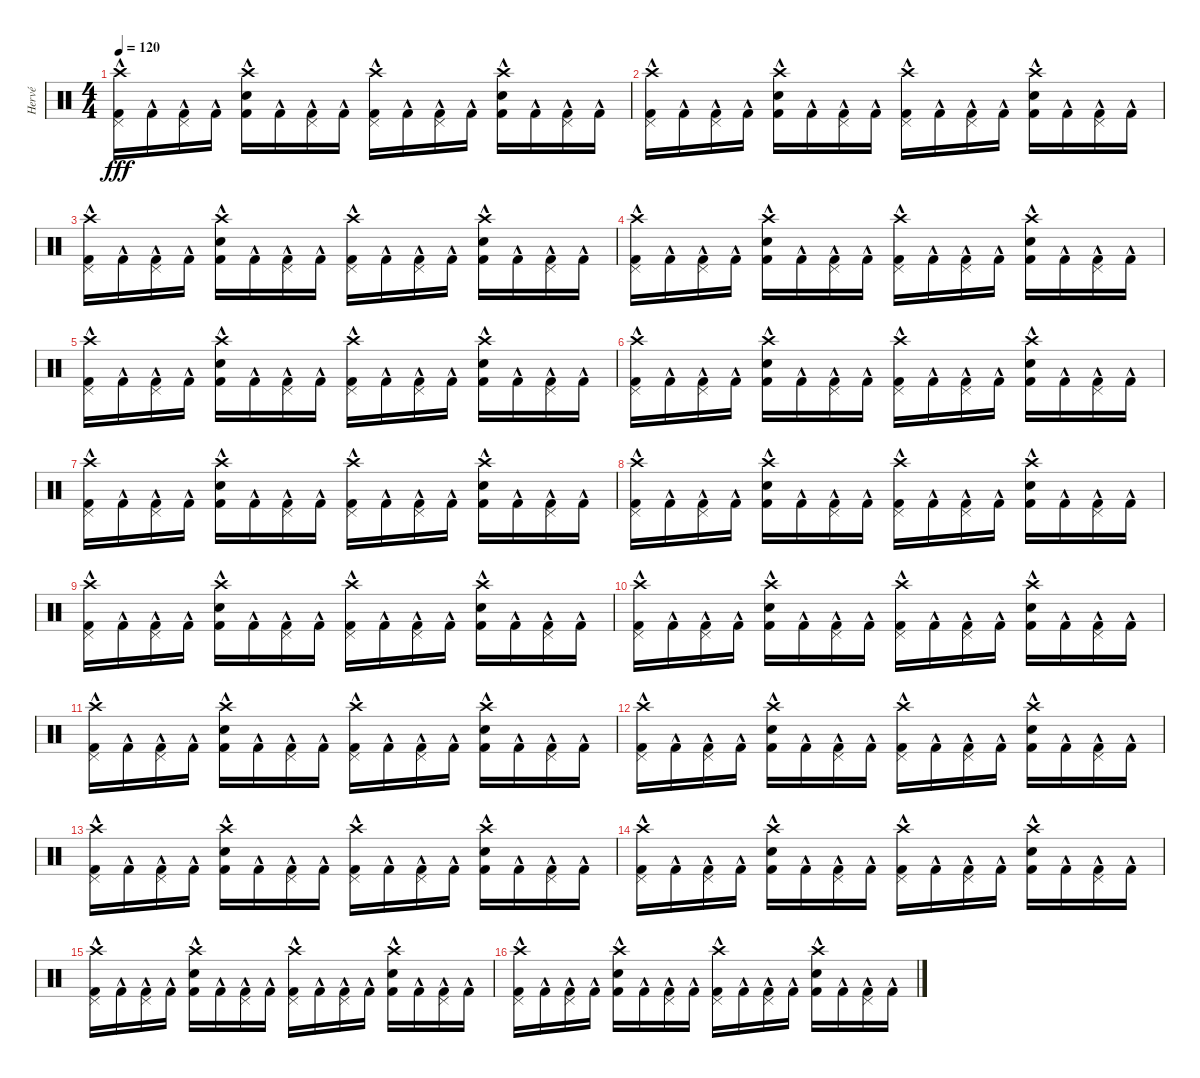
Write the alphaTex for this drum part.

\track ("Hervé" "Hervé") {instrument percussion}
\staff {score}
\articulation defaults
\ts (4 4)
\tempo 120
\clef neutral
\ks c
("Crash high (hit)" "Pedal Hi-Hat (hit)" "Kick (hit) 2"{hac}).16{dy fff} "Kick (hit) 2"{hac}.16 ("Pedal Hi-Hat (hit)" "Kick (hit) 2"{hac}).16 "Kick (hit) 2"{hac}.16 ("Crash high (hit)" "Electric Snare (hit)" "Kick (hit) 2"{hac}).16 "Kick (hit) 2"{hac}.16 ("Pedal Hi-Hat (hit)" "Kick (hit) 2"{hac}).16 "Kick (hit) 2"{hac}.16 ("Crash high (hit)" "Pedal Hi-Hat (hit)" "Kick (hit) 2"{hac}).16 "Kick (hit) 2"{hac}.16 ("Pedal Hi-Hat (hit)" "Kick (hit) 2"{hac}).16 "Kick (hit) 2"{hac}.16 ("Crash high (hit)" "Electric Snare (hit)" "Kick (hit) 2"{hac}).16 "Kick (hit) 2"{hac}.16 ("Pedal Hi-Hat (hit)" "Kick (hit) 2"{hac}).16 "Kick (hit) 2"{hac}.16 |
("Crash high (hit)" "Pedal Hi-Hat (hit)" "Kick (hit) 2"{hac}).16 "Kick (hit) 2"{hac}.16 ("Pedal Hi-Hat (hit)" "Kick (hit) 2"{hac}).16 "Kick (hit) 2"{hac}.16 ("Crash high (hit)" "Electric Snare (hit)" "Kick (hit) 2"{hac}).16 "Kick (hit) 2"{hac}.16 ("Pedal Hi-Hat (hit)" "Kick (hit) 2"{hac}).16 "Kick (hit) 2"{hac}.16 ("Crash high (hit)" "Pedal Hi-Hat (hit)" "Kick (hit) 2"{hac}).16 "Kick (hit) 2"{hac}.16 ("Pedal Hi-Hat (hit)" "Kick (hit) 2"{hac}).16 "Kick (hit) 2"{hac}.16 ("Crash high (hit)" "Electric Snare (hit)" "Kick (hit) 2"{hac}).16 "Kick (hit) 2"{hac}.16 ("Pedal Hi-Hat (hit)" "Kick (hit) 2"{hac}).16 "Kick (hit) 2"{hac}.16 |
("Crash high (hit)" "Pedal Hi-Hat (hit)" "Kick (hit) 2"{hac}).16 "Kick (hit) 2"{hac}.16 ("Pedal Hi-Hat (hit)" "Kick (hit) 2"{hac}).16 "Kick (hit) 2"{hac}.16 ("Crash high (hit)" "Electric Snare (hit)" "Kick (hit) 2"{hac}).16 "Kick (hit) 2"{hac}.16 ("Pedal Hi-Hat (hit)" "Kick (hit) 2"{hac}).16 "Kick (hit) 2"{hac}.16 ("Crash high (hit)" "Pedal Hi-Hat (hit)" "Kick (hit) 2"{hac}).16 "Kick (hit) 2"{hac}.16 ("Pedal Hi-Hat (hit)" "Kick (hit) 2"{hac}).16 "Kick (hit) 2"{hac}.16 ("Crash high (hit)" "Electric Snare (hit)" "Kick (hit) 2"{hac}).16 "Kick (hit) 2"{hac}.16 ("Pedal Hi-Hat (hit)" "Kick (hit) 2"{hac}).16 "Kick (hit) 2"{hac}.16 |
("Crash high (hit)" "Pedal Hi-Hat (hit)" "Kick (hit) 2"{hac}).16 "Kick (hit) 2"{hac}.16 ("Pedal Hi-Hat (hit)" "Kick (hit) 2"{hac}).16 "Kick (hit) 2"{hac}.16 ("Crash high (hit)" "Electric Snare (hit)" "Kick (hit) 2"{hac}).16 "Kick (hit) 2"{hac}.16 ("Pedal Hi-Hat (hit)" "Kick (hit) 2"{hac}).16 "Kick (hit) 2"{hac}.16 ("Crash high (hit)" "Pedal Hi-Hat (hit)" "Kick (hit) 2"{hac}).16 "Kick (hit) 2"{hac}.16 ("Pedal Hi-Hat (hit)" "Kick (hit) 2"{hac}).16 "Kick (hit) 2"{hac}.16 ("Crash high (hit)" "Electric Snare (hit)" "Kick (hit) 2"{hac}).16 "Kick (hit) 2"{hac}.16 ("Pedal Hi-Hat (hit)" "Kick (hit) 2"{hac}).16 "Kick (hit) 2"{hac}.16 |
("Crash high (hit)" "Pedal Hi-Hat (hit)" "Kick (hit) 2"{hac}).16 "Kick (hit) 2"{hac}.16 ("Pedal Hi-Hat (hit)" "Kick (hit) 2"{hac}).16 "Kick (hit) 2"{hac}.16 ("Crash high (hit)" "Electric Snare (hit)" "Kick (hit) 2"{hac}).16 "Kick (hit) 2"{hac}.16 ("Pedal Hi-Hat (hit)" "Kick (hit) 2"{hac}).16 "Kick (hit) 2"{hac}.16 ("Crash high (hit)" "Pedal Hi-Hat (hit)" "Kick (hit) 2"{hac}).16 "Kick (hit) 2"{hac}.16 ("Pedal Hi-Hat (hit)" "Kick (hit) 2"{hac}).16 "Kick (hit) 2"{hac}.16 ("Crash high (hit)" "Electric Snare (hit)" "Kick (hit) 2"{hac}).16 "Kick (hit) 2"{hac}.16 ("Pedal Hi-Hat (hit)" "Kick (hit) 2"{hac}).16 "Kick (hit) 2"{hac}.16 |
("Crash high (hit)" "Pedal Hi-Hat (hit)" "Kick (hit) 2"{hac}).16 "Kick (hit) 2"{hac}.16 ("Pedal Hi-Hat (hit)" "Kick (hit) 2"{hac}).16 "Kick (hit) 2"{hac}.16 ("Crash high (hit)" "Electric Snare (hit)" "Kick (hit) 2"{hac}).16 "Kick (hit) 2"{hac}.16 ("Pedal Hi-Hat (hit)" "Kick (hit) 2"{hac}).16 "Kick (hit) 2"{hac}.16 ("Crash high (hit)" "Pedal Hi-Hat (hit)" "Kick (hit) 2"{hac}).16 "Kick (hit) 2"{hac}.16 ("Pedal Hi-Hat (hit)" "Kick (hit) 2"{hac}).16 "Kick (hit) 2"{hac}.16 ("Crash high (hit)" "Electric Snare (hit)" "Kick (hit) 2"{hac}).16 "Kick (hit) 2"{hac}.16 ("Pedal Hi-Hat (hit)" "Kick (hit) 2"{hac}).16 "Kick (hit) 2"{hac}.16 |
("Crash high (hit)" "Pedal Hi-Hat (hit)" "Kick (hit) 2"{hac}).16 "Kick (hit) 2"{hac}.16 ("Pedal Hi-Hat (hit)" "Kick (hit) 2"{hac}).16 "Kick (hit) 2"{hac}.16 ("Crash high (hit)" "Electric Snare (hit)" "Kick (hit) 2"{hac}).16 "Kick (hit) 2"{hac}.16 ("Pedal Hi-Hat (hit)" "Kick (hit) 2"{hac}).16 "Kick (hit) 2"{hac}.16 ("Crash high (hit)" "Pedal Hi-Hat (hit)" "Kick (hit) 2"{hac}).16 "Kick (hit) 2"{hac}.16 ("Pedal Hi-Hat (hit)" "Kick (hit) 2"{hac}).16 "Kick (hit) 2"{hac}.16 ("Crash high (hit)" "Electric Snare (hit)" "Kick (hit) 2"{hac}).16 "Kick (hit) 2"{hac}.16 ("Pedal Hi-Hat (hit)" "Kick (hit) 2"{hac}).16 "Kick (hit) 2"{hac}.16 |
("Crash high (hit)" "Pedal Hi-Hat (hit)" "Kick (hit) 2"{hac}).16 "Kick (hit) 2"{hac}.16 ("Pedal Hi-Hat (hit)" "Kick (hit) 2"{hac}).16 "Kick (hit) 2"{hac}.16 ("Crash high (hit)" "Electric Snare (hit)" "Kick (hit) 2"{hac}).16 "Kick (hit) 2"{hac}.16 ("Pedal Hi-Hat (hit)" "Kick (hit) 2"{hac}).16 "Kick (hit) 2"{hac}.16 ("Crash high (hit)" "Pedal Hi-Hat (hit)" "Kick (hit) 2"{hac}).16 "Kick (hit) 2"{hac}.16 ("Pedal Hi-Hat (hit)" "Kick (hit) 2"{hac}).16 "Kick (hit) 2"{hac}.16 ("Crash high (hit)" "Electric Snare (hit)" "Kick (hit) 2"{hac}).16 "Kick (hit) 2"{hac}.16 ("Pedal Hi-Hat (hit)" "Kick (hit) 2"{hac}).16 "Kick (hit) 2"{hac}.16 |
("Crash high (hit)" "Pedal Hi-Hat (hit)" "Kick (hit) 2"{hac}).16 "Kick (hit) 2"{hac}.16 ("Pedal Hi-Hat (hit)" "Kick (hit) 2"{hac}).16 "Kick (hit) 2"{hac}.16 ("Crash high (hit)" "Electric Snare (hit)" "Kick (hit) 2"{hac}).16 "Kick (hit) 2"{hac}.16 ("Pedal Hi-Hat (hit)" "Kick (hit) 2"{hac}).16 "Kick (hit) 2"{hac}.16 ("Crash high (hit)" "Pedal Hi-Hat (hit)" "Kick (hit) 2"{hac}).16 "Kick (hit) 2"{hac}.16 ("Pedal Hi-Hat (hit)" "Kick (hit) 2"{hac}).16 "Kick (hit) 2"{hac}.16 ("Crash high (hit)" "Electric Snare (hit)" "Kick (hit) 2"{hac}).16 "Kick (hit) 2"{hac}.16 ("Pedal Hi-Hat (hit)" "Kick (hit) 2"{hac}).16 "Kick (hit) 2"{hac}.16 |
("Crash high (hit)" "Pedal Hi-Hat (hit)" "Kick (hit) 2"{hac}).16 "Kick (hit) 2"{hac}.16 ("Pedal Hi-Hat (hit)" "Kick (hit) 2"{hac}).16 "Kick (hit) 2"{hac}.16 ("Crash high (hit)" "Electric Snare (hit)" "Kick (hit) 2"{hac}).16 "Kick (hit) 2"{hac}.16 ("Pedal Hi-Hat (hit)" "Kick (hit) 2"{hac}).16 "Kick (hit) 2"{hac}.16 ("Crash high (hit)" "Pedal Hi-Hat (hit)" "Kick (hit) 2"{hac}).16 "Kick (hit) 2"{hac}.16 ("Pedal Hi-Hat (hit)" "Kick (hit) 2"{hac}).16 "Kick (hit) 2"{hac}.16 ("Crash high (hit)" "Electric Snare (hit)" "Kick (hit) 2"{hac}).16 "Kick (hit) 2"{hac}.16 ("Pedal Hi-Hat (hit)" "Kick (hit) 2"{hac}).16 "Kick (hit) 2"{hac}.16 |
("Crash high (hit)" "Pedal Hi-Hat (hit)" "Kick (hit) 2"{hac}).16 "Kick (hit) 2"{hac}.16 ("Pedal Hi-Hat (hit)" "Kick (hit) 2"{hac}).16 "Kick (hit) 2"{hac}.16 ("Crash high (hit)" "Electric Snare (hit)" "Kick (hit) 2"{hac}).16 "Kick (hit) 2"{hac}.16 ("Pedal Hi-Hat (hit)" "Kick (hit) 2"{hac}).16 "Kick (hit) 2"{hac}.16 ("Crash high (hit)" "Pedal Hi-Hat (hit)" "Kick (hit) 2"{hac}).16 "Kick (hit) 2"{hac}.16 ("Pedal Hi-Hat (hit)" "Kick (hit) 2"{hac}).16 "Kick (hit) 2"{hac}.16 ("Crash high (hit)" "Electric Snare (hit)" "Kick (hit) 2"{hac}).16 "Kick (hit) 2"{hac}.16 ("Pedal Hi-Hat (hit)" "Kick (hit) 2"{hac}).16 "Kick (hit) 2"{hac}.16 |
("Crash high (hit)" "Pedal Hi-Hat (hit)" "Kick (hit) 2"{hac}).16 "Kick (hit) 2"{hac}.16 ("Pedal Hi-Hat (hit)" "Kick (hit) 2"{hac}).16 "Kick (hit) 2"{hac}.16 ("Crash high (hit)" "Electric Snare (hit)" "Kick (hit) 2"{hac}).16 "Kick (hit) 2"{hac}.16 ("Pedal Hi-Hat (hit)" "Kick (hit) 2"{hac}).16 "Kick (hit) 2"{hac}.16 ("Crash high (hit)" "Pedal Hi-Hat (hit)" "Kick (hit) 2"{hac}).16 "Kick (hit) 2"{hac}.16 ("Pedal Hi-Hat (hit)" "Kick (hit) 2"{hac}).16 "Kick (hit) 2"{hac}.16 ("Crash high (hit)" "Electric Snare (hit)" "Kick (hit) 2"{hac}).16 "Kick (hit) 2"{hac}.16 ("Pedal Hi-Hat (hit)" "Kick (hit) 2"{hac}).16 "Kick (hit) 2"{hac}.16 |
("Crash high (hit)" "Pedal Hi-Hat (hit)" "Kick (hit) 2"{hac}).16 "Kick (hit) 2"{hac}.16 ("Pedal Hi-Hat (hit)" "Kick (hit) 2"{hac}).16 "Kick (hit) 2"{hac}.16 ("Crash high (hit)" "Electric Snare (hit)" "Kick (hit) 2"{hac}).16 "Kick (hit) 2"{hac}.16 ("Pedal Hi-Hat (hit)" "Kick (hit) 2"{hac}).16 "Kick (hit) 2"{hac}.16 ("Crash high (hit)" "Pedal Hi-Hat (hit)" "Kick (hit) 2"{hac}).16 "Kick (hit) 2"{hac}.16 ("Pedal Hi-Hat (hit)" "Kick (hit) 2"{hac}).16 "Kick (hit) 2"{hac}.16 ("Crash high (hit)" "Electric Snare (hit)" "Kick (hit) 2"{hac}).16 "Kick (hit) 2"{hac}.16 ("Pedal Hi-Hat (hit)" "Kick (hit) 2"{hac}).16 "Kick (hit) 2"{hac}.16 |
("Crash high (hit)" "Pedal Hi-Hat (hit)" "Kick (hit) 2"{hac}).16 "Kick (hit) 2"{hac}.16 ("Pedal Hi-Hat (hit)" "Kick (hit) 2"{hac}).16 "Kick (hit) 2"{hac}.16 ("Crash high (hit)" "Electric Snare (hit)" "Kick (hit) 2"{hac}).16 "Kick (hit) 2"{hac}.16 ("Pedal Hi-Hat (hit)" "Kick (hit) 2"{hac}).16 "Kick (hit) 2"{hac}.16 ("Crash high (hit)" "Pedal Hi-Hat (hit)" "Kick (hit) 2"{hac}).16 "Kick (hit) 2"{hac}.16 ("Pedal Hi-Hat (hit)" "Kick (hit) 2"{hac}).16 "Kick (hit) 2"{hac}.16 ("Crash high (hit)" "Electric Snare (hit)" "Kick (hit) 2"{hac}).16 "Kick (hit) 2"{hac}.16 ("Pedal Hi-Hat (hit)" "Kick (hit) 2"{hac}).16 "Kick (hit) 2"{hac}.16 |
("Crash high (hit)" "Pedal Hi-Hat (hit)" "Kick (hit) 2"{hac}).16 "Kick (hit) 2"{hac}.16 ("Pedal Hi-Hat (hit)" "Kick (hit) 2"{hac}).16 "Kick (hit) 2"{hac}.16 ("Crash high (hit)" "Electric Snare (hit)" "Kick (hit) 2"{hac}).16 "Kick (hit) 2"{hac}.16 ("Pedal Hi-Hat (hit)" "Kick (hit) 2"{hac}).16 "Kick (hit) 2"{hac}.16 ("Crash high (hit)" "Pedal Hi-Hat (hit)" "Kick (hit) 2"{hac}).16 "Kick (hit) 2"{hac}.16 ("Pedal Hi-Hat (hit)" "Kick (hit) 2"{hac}).16 "Kick (hit) 2"{hac}.16 ("Crash high (hit)" "Electric Snare (hit)" "Kick (hit) 2"{hac}).16 "Kick (hit) 2"{hac}.16 ("Pedal Hi-Hat (hit)" "Kick (hit) 2"{hac}).16 "Kick (hit) 2"{hac}.16 |
("Crash high (hit)" "Pedal Hi-Hat (hit)" "Kick (hit) 2"{hac}).16 "Kick (hit) 2"{hac}.16 ("Pedal Hi-Hat (hit)" "Kick (hit) 2"{hac}).16 "Kick (hit) 2"{hac}.16 ("Crash high (hit)" "Electric Snare (hit)" "Kick (hit) 2"{hac}).16 "Kick (hit) 2"{hac}.16 ("Pedal Hi-Hat (hit)" "Kick (hit) 2"{hac}).16 "Kick (hit) 2"{hac}.16 ("Crash high (hit)" "Pedal Hi-Hat (hit)" "Kick (hit) 2"{hac}).16 "Kick (hit) 2"{hac}.16 ("Pedal Hi-Hat (hit)" "Kick (hit) 2"{hac}).16 "Kick (hit) 2"{hac}.16 ("Crash high (hit)" "Electric Snare (hit)" "Kick (hit) 2"{hac}).16 "Kick (hit) 2"{hac}.16 ("Pedal Hi-Hat (hit)" "Kick (hit) 2"{hac}).16 "Kick (hit) 2"{hac}.16
